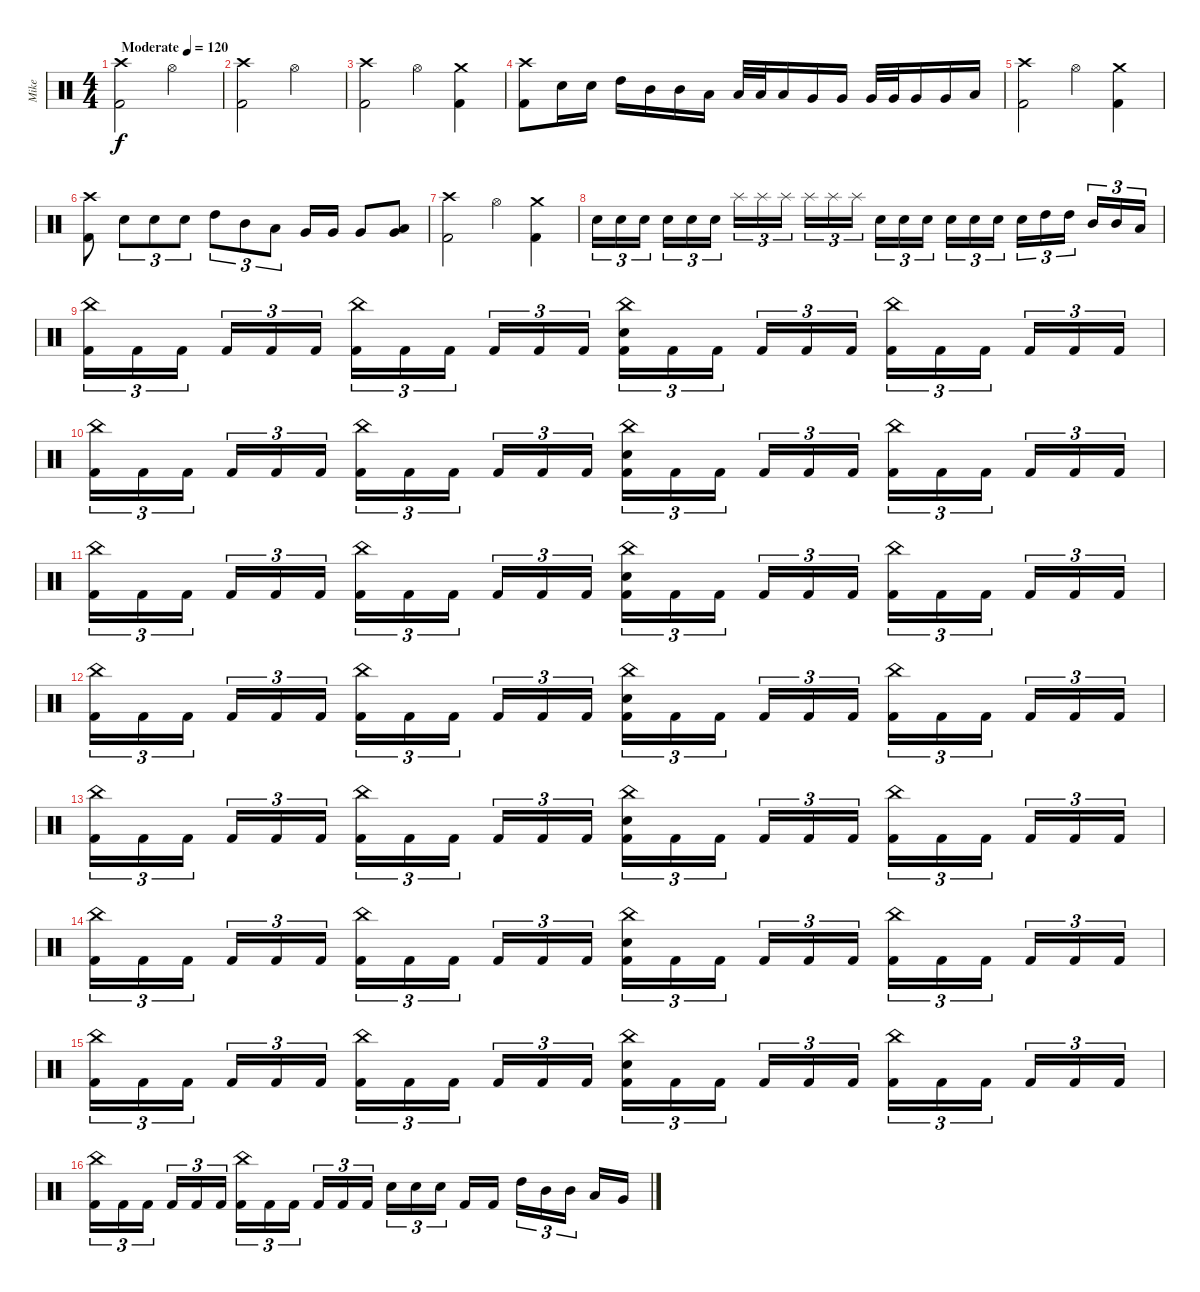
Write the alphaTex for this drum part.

\track ("Mike" "Mike") {instrument percussion}
\staff {score}
\articulation defaults
\ts (4 4)
\tempo (120 "Moderate")
\clef neutral
\ks c
("Kick (hit) 2" "Crash high (hit)").2{dy f} "Hi-Hat (open)".2 |
("Kick (hit) 2" "Crash high (hit)").2 "Hi-Hat (open)".2 |
("Kick (hit) 2" "Crash high (hit)").2 "Hi-Hat (open)".4 ("Kick (hit) 2" "Crash medium (hit)").4 |
("Kick (hit) 2" "Crash high (hit)").8 "Electric Snare (hit)".16 "Electric Snare (hit)".16 "High Tom (hit)".16 "Mid Tom (hit)".16 "Mid Tom (hit)".16 "Low Tom (hit)".16 "Low Tom (hit)".32 "Low Tom (hit)".32 "Low Tom (hit)".16 "Very Low Tom (hit)".16 "Very Low Tom (hit)".16 "Very Low Tom (hit)".32 "Very Low Tom (hit)".32 "Very Low Tom (hit)".16 "Very Low Tom (hit)".16 "Low Floor Tom (hit)".16 |
("Kick (hit) 2" "Crash high (hit)").2 "Hi-Hat (open)".4 ("Kick (hit) 2" "Crash medium (hit)").4 |
("Kick (hit) 2" "Crash high (hit)").8 "Electric Snare (hit)".8{tu (3 2)} "Electric Snare (hit)".8{tu (3 2)} "Electric Snare (hit)".8{tu (3 2)} "High Tom (hit)".8{tu (3 2)} "Mid Tom (hit)".8{tu (3 2)} "Low Tom (hit)".8{tu (3 2)} "Very Low Tom (hit)".16 "Very Low Tom (hit)".16 "Very Low Tom (hit)".8 ("Low Floor Tom (hit)" "Very Low Tom (hit)").8 |
("Kick (hit) 2" "Crash high (hit)").2 "Hi-Hat (open)".4 ("Kick (hit) 2" "Crash medium (hit)").4 |
"Electric Snare (hit)".16{tu (3 2)} "Electric Snare (hit)".16{tu (3 2)} "Electric Snare (hit)".16{tu (3 2) beam splitsecondary} "Electric Snare (hit)".16{tu (3 2)} "Electric Snare (hit)".16{tu (3 2)} "Electric Snare (hit)".16{tu (3 2)} "Splash (hit)".16{tu (3 2)} "Splash (hit)".16{tu (3 2)} "Splash (hit)".16{tu (3 2) beam splitsecondary} "Splash (hit)".16{tu (3 2)} "Splash (hit)".16{tu (3 2)} "Splash (hit)".16{tu (3 2)} "Electric Snare (hit)".16{tu (3 2)} "Electric Snare (hit)".16{tu (3 2)} "Electric Snare (hit)".16{tu (3 2) beam splitsecondary} "Electric Snare (hit)".16{tu (3 2)} "Electric Snare (hit)".16{tu (3 2)} "Electric Snare (hit)".16{tu (3 2)} "Electric Snare (hit)".16{tu (3 2)} "High Tom (hit)".16{tu (3 2)} "High Tom (hit)".16{tu (3 2) beam splitsecondary} "Mid Tom (hit)".16{tu (3 2)} "Mid Tom (hit)".16{tu (3 2)} "Low Tom (hit)".16{tu (3 2)} |
("Kick (hit) 2" "China (hit)").16{tu (3 2)} "Kick (hit) 2".16{tu (3 2)} "Kick (hit) 2".16{tu (3 2) beam splitsecondary} "Kick (hit) 2".16{tu (3 2)} "Kick (hit) 2".16{tu (3 2)} "Kick (hit) 2".16{tu (3 2)} ("Kick (hit) 2" "China (hit)").16{tu (3 2)} "Kick (hit) 2".16{tu (3 2)} "Kick (hit) 2".16{tu (3 2) beam splitsecondary} "Kick (hit) 2".16{tu (3 2)} "Kick (hit) 2".16{tu (3 2)} "Kick (hit) 2".16{tu (3 2)} ("Kick (hit) 2" "Electric Snare (hit)" "China (hit)").16{tu (3 2)} "Kick (hit) 2".16{tu (3 2)} "Kick (hit) 2".16{tu (3 2) beam splitsecondary} "Kick (hit) 2".16{tu (3 2)} "Kick (hit) 2".16{tu (3 2)} "Kick (hit) 2".16{tu (3 2)} ("Kick (hit) 2" "China (hit)").16{tu (3 2)} "Kick (hit) 2".16{tu (3 2)} "Kick (hit) 2".16{tu (3 2) beam splitsecondary} "Kick (hit) 2".16{tu (3 2)} "Kick (hit) 2".16{tu (3 2)} "Kick (hit) 2".16{tu (3 2)} |
("Kick (hit) 2" "China (hit)").16{tu (3 2)} "Kick (hit) 2".16{tu (3 2)} "Kick (hit) 2".16{tu (3 2) beam splitsecondary} "Kick (hit) 2".16{tu (3 2)} "Kick (hit) 2".16{tu (3 2)} "Kick (hit) 2".16{tu (3 2)} ("Kick (hit) 2" "China (hit)").16{tu (3 2)} "Kick (hit) 2".16{tu (3 2)} "Kick (hit) 2".16{tu (3 2) beam splitsecondary} "Kick (hit) 2".16{tu (3 2)} "Kick (hit) 2".16{tu (3 2)} "Kick (hit) 2".16{tu (3 2)} ("Kick (hit) 2" "Electric Snare (hit)" "China (hit)").16{tu (3 2)} "Kick (hit) 2".16{tu (3 2)} "Kick (hit) 2".16{tu (3 2) beam splitsecondary} "Kick (hit) 2".16{tu (3 2)} "Kick (hit) 2".16{tu (3 2)} "Kick (hit) 2".16{tu (3 2)} ("Kick (hit) 2" "China (hit)").16{tu (3 2)} "Kick (hit) 2".16{tu (3 2)} "Kick (hit) 2".16{tu (3 2) beam splitsecondary} "Kick (hit) 2".16{tu (3 2)} "Kick (hit) 2".16{tu (3 2)} "Kick (hit) 2".16{tu (3 2)} |
("Kick (hit) 2" "China (hit)").16{tu (3 2)} "Kick (hit) 2".16{tu (3 2)} "Kick (hit) 2".16{tu (3 2) beam splitsecondary} "Kick (hit) 2".16{tu (3 2)} "Kick (hit) 2".16{tu (3 2)} "Kick (hit) 2".16{tu (3 2)} ("Kick (hit) 2" "China (hit)").16{tu (3 2)} "Kick (hit) 2".16{tu (3 2)} "Kick (hit) 2".16{tu (3 2) beam splitsecondary} "Kick (hit) 2".16{tu (3 2)} "Kick (hit) 2".16{tu (3 2)} "Kick (hit) 2".16{tu (3 2)} ("Kick (hit) 2" "Electric Snare (hit)" "China (hit)").16{tu (3 2)} "Kick (hit) 2".16{tu (3 2)} "Kick (hit) 2".16{tu (3 2) beam splitsecondary} "Kick (hit) 2".16{tu (3 2)} "Kick (hit) 2".16{tu (3 2)} "Kick (hit) 2".16{tu (3 2)} ("Kick (hit) 2" "China (hit)").16{tu (3 2)} "Kick (hit) 2".16{tu (3 2)} "Kick (hit) 2".16{tu (3 2) beam splitsecondary} "Kick (hit) 2".16{tu (3 2)} "Kick (hit) 2".16{tu (3 2)} "Kick (hit) 2".16{tu (3 2)} |
("Kick (hit) 2" "China (hit)").16{tu (3 2)} "Kick (hit) 2".16{tu (3 2)} "Kick (hit) 2".16{tu (3 2) beam splitsecondary} "Kick (hit) 2".16{tu (3 2)} "Kick (hit) 2".16{tu (3 2)} "Kick (hit) 2".16{tu (3 2)} ("Kick (hit) 2" "China (hit)").16{tu (3 2)} "Kick (hit) 2".16{tu (3 2)} "Kick (hit) 2".16{tu (3 2) beam splitsecondary} "Kick (hit) 2".16{tu (3 2)} "Kick (hit) 2".16{tu (3 2)} "Kick (hit) 2".16{tu (3 2)} ("Kick (hit) 2" "Electric Snare (hit)" "China (hit)").16{tu (3 2)} "Kick (hit) 2".16{tu (3 2)} "Kick (hit) 2".16{tu (3 2) beam splitsecondary} "Kick (hit) 2".16{tu (3 2)} "Kick (hit) 2".16{tu (3 2)} "Kick (hit) 2".16{tu (3 2)} ("Kick (hit) 2" "China (hit)").16{tu (3 2)} "Kick (hit) 2".16{tu (3 2)} "Kick (hit) 2".16{tu (3 2) beam splitsecondary} "Kick (hit) 2".16{tu (3 2)} "Kick (hit) 2".16{tu (3 2)} "Kick (hit) 2".16{tu (3 2)} |
("Kick (hit) 2" "China (hit)").16{tu (3 2)} "Kick (hit) 2".16{tu (3 2)} "Kick (hit) 2".16{tu (3 2) beam splitsecondary} "Kick (hit) 2".16{tu (3 2)} "Kick (hit) 2".16{tu (3 2)} "Kick (hit) 2".16{tu (3 2)} ("Kick (hit) 2" "China (hit)").16{tu (3 2)} "Kick (hit) 2".16{tu (3 2)} "Kick (hit) 2".16{tu (3 2) beam splitsecondary} "Kick (hit) 2".16{tu (3 2)} "Kick (hit) 2".16{tu (3 2)} "Kick (hit) 2".16{tu (3 2)} ("Kick (hit) 2" "Electric Snare (hit)" "China (hit)").16{tu (3 2)} "Kick (hit) 2".16{tu (3 2)} "Kick (hit) 2".16{tu (3 2) beam splitsecondary} "Kick (hit) 2".16{tu (3 2)} "Kick (hit) 2".16{tu (3 2)} "Kick (hit) 2".16{tu (3 2)} ("Kick (hit) 2" "China (hit)").16{tu (3 2)} "Kick (hit) 2".16{tu (3 2)} "Kick (hit) 2".16{tu (3 2) beam splitsecondary} "Kick (hit) 2".16{tu (3 2)} "Kick (hit) 2".16{tu (3 2)} "Kick (hit) 2".16{tu (3 2)} |
("Kick (hit) 2" "China (hit)").16{tu (3 2)} "Kick (hit) 2".16{tu (3 2)} "Kick (hit) 2".16{tu (3 2) beam splitsecondary} "Kick (hit) 2".16{tu (3 2)} "Kick (hit) 2".16{tu (3 2)} "Kick (hit) 2".16{tu (3 2)} ("Kick (hit) 2" "China (hit)").16{tu (3 2)} "Kick (hit) 2".16{tu (3 2)} "Kick (hit) 2".16{tu (3 2) beam splitsecondary} "Kick (hit) 2".16{tu (3 2)} "Kick (hit) 2".16{tu (3 2)} "Kick (hit) 2".16{tu (3 2)} ("Kick (hit) 2" "Electric Snare (hit)" "China (hit)").16{tu (3 2)} "Kick (hit) 2".16{tu (3 2)} "Kick (hit) 2".16{tu (3 2) beam splitsecondary} "Kick (hit) 2".16{tu (3 2)} "Kick (hit) 2".16{tu (3 2)} "Kick (hit) 2".16{tu (3 2)} ("Kick (hit) 2" "China (hit)").16{tu (3 2)} "Kick (hit) 2".16{tu (3 2)} "Kick (hit) 2".16{tu (3 2) beam splitsecondary} "Kick (hit) 2".16{tu (3 2)} "Kick (hit) 2".16{tu (3 2)} "Kick (hit) 2".16{tu (3 2)} |
("Kick (hit) 2" "China (hit)").16{tu (3 2)} "Kick (hit) 2".16{tu (3 2)} "Kick (hit) 2".16{tu (3 2) beam splitsecondary} "Kick (hit) 2".16{tu (3 2)} "Kick (hit) 2".16{tu (3 2)} "Kick (hit) 2".16{tu (3 2)} ("Kick (hit) 2" "China (hit)").16{tu (3 2)} "Kick (hit) 2".16{tu (3 2)} "Kick (hit) 2".16{tu (3 2) beam splitsecondary} "Kick (hit) 2".16{tu (3 2)} "Kick (hit) 2".16{tu (3 2)} "Kick (hit) 2".16{tu (3 2)} ("Kick (hit) 2" "Electric Snare (hit)" "China (hit)").16{tu (3 2)} "Kick (hit) 2".16{tu (3 2)} "Kick (hit) 2".16{tu (3 2) beam splitsecondary} "Kick (hit) 2".16{tu (3 2)} "Kick (hit) 2".16{tu (3 2)} "Kick (hit) 2".16{tu (3 2)} ("Kick (hit) 2" "China (hit)").16{tu (3 2)} "Kick (hit) 2".16{tu (3 2)} "Kick (hit) 2".16{tu (3 2) beam splitsecondary} "Kick (hit) 2".16{tu (3 2)} "Kick (hit) 2".16{tu (3 2)} "Kick (hit) 2".16{tu (3 2)} |
("Kick (hit) 2" "China (hit)").16{tu (3 2)} "Kick (hit) 2".16{tu (3 2)} "Kick (hit) 2".16{tu (3 2) beam splitsecondary} "Kick (hit) 2".16{tu (3 2)} "Kick (hit) 2".16{tu (3 2)} "Kick (hit) 2".16{tu (3 2)} ("Kick (hit) 2" "China (hit)").16{tu (3 2)} "Kick (hit) 2".16{tu (3 2)} "Kick (hit) 2".16{tu (3 2) beam splitsecondary} "Kick (hit) 2".16{tu (3 2)} "Kick (hit) 2".16{tu (3 2)} "Kick (hit) 2".16{tu (3 2)} "Electric Snare (hit)".16{tu (3 2)} "Electric Snare (hit)".16{tu (3 2)} "Electric Snare (hit)".16{tu (3 2) beam splitsecondary} "Kick (hit) 2".16 "Kick (hit) 2".16 "High Tom (hit)".16{tu (3 2)} "Mid Tom (hit)".16{tu (3 2)} "Mid Tom (hit)".16{tu (3 2) beam splitsecondary} "Low Tom (hit)".16 "Very Low Tom (hit)".16
